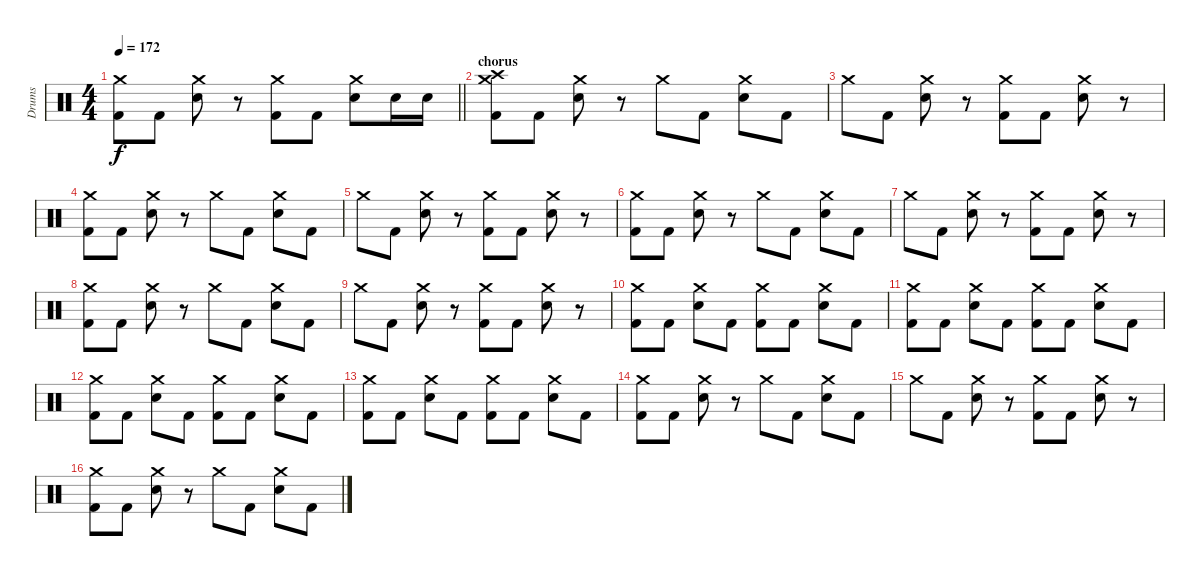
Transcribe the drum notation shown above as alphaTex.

\track ("Drums" "Drums") {instrument percussion}
\staff {score}
\articulation defaults
\ts (4 4)
\tempo 172
\clef neutral
\barLineRight lightlight
\ks c
("Crash medium (hit)" "Kick (hit) 2").8{dy f} "Kick (hit) 2".8 ("Crash medium (hit)" "Electric Snare (hit)").8 r.8 ("Crash medium (hit)" "Kick (hit) 2").8 "Kick (hit) 2".8 ("Crash medium (hit)" "Electric Snare (hit)").8 "Electric Snare (hit)".16 "Electric Snare (hit)".16 |
\section ("" "chorus")
("Crash high (hit)" "Crash medium (hit)" "Kick (hit) 2").8 "Kick (hit) 2".8 ("Crash medium (hit)" "Electric Snare (hit)").8 r.8 "Crash medium (hit)".8 "Kick (hit) 2".8 ("Crash medium (hit)" "Electric Snare (hit)").8 "Kick (hit) 2".8 |
"Crash medium (hit)".8 "Kick (hit) 2".8 ("Crash medium (hit)" "Electric Snare (hit)").8 r.8 ("Crash medium (hit)" "Kick (hit) 2").8 "Kick (hit) 2".8 ("Crash medium (hit)" "Electric Snare (hit)").8 r.8 |
("Crash medium (hit)" "Kick (hit) 2").8 "Kick (hit) 2".8 ("Crash medium (hit)" "Electric Snare (hit)").8 r.8 "Crash medium (hit)".8 "Kick (hit) 2".8 ("Crash medium (hit)" "Electric Snare (hit)").8 "Kick (hit) 2".8 |
"Crash medium (hit)".8 "Kick (hit) 2".8 ("Crash medium (hit)" "Electric Snare (hit)").8 r.8 ("Crash medium (hit)" "Kick (hit) 2").8 "Kick (hit) 2".8 ("Crash medium (hit)" "Electric Snare (hit)").8 r.8 |
("Crash medium (hit)" "Kick (hit) 2").8 "Kick (hit) 2".8 ("Crash medium (hit)" "Electric Snare (hit)").8 r.8 "Crash medium (hit)".8 "Kick (hit) 2".8 ("Crash medium (hit)" "Electric Snare (hit)").8 "Kick (hit) 2".8 |
"Crash medium (hit)".8 "Kick (hit) 2".8 ("Crash medium (hit)" "Electric Snare (hit)").8 r.8 ("Crash medium (hit)" "Kick (hit) 2").8 "Kick (hit) 2".8 ("Crash medium (hit)" "Electric Snare (hit)").8 r.8 |
("Crash medium (hit)" "Kick (hit) 2").8 "Kick (hit) 2".8 ("Crash medium (hit)" "Electric Snare (hit)").8 r.8 "Crash medium (hit)".8 "Kick (hit) 2".8 ("Crash medium (hit)" "Electric Snare (hit)").8 "Kick (hit) 2".8 |
"Crash medium (hit)".8 "Kick (hit) 2".8 ("Crash medium (hit)" "Electric Snare (hit)").8 r.8 ("Crash medium (hit)" "Kick (hit) 2").8 "Kick (hit) 2".8 ("Crash medium (hit)" "Electric Snare (hit)").8 r.8 |
("Crash medium (hit)" "Kick (hit) 2").8 "Kick (hit) 2".8 ("Crash medium (hit)" "Electric Snare (hit)").8 "Kick (hit) 2".8 ("Crash medium (hit)" "Kick (hit) 2").8 "Kick (hit) 2".8 ("Crash medium (hit)" "Electric Snare (hit)").8 "Kick (hit) 2".8 |
("Crash medium (hit)" "Kick (hit) 2").8 "Kick (hit) 2".8 ("Crash medium (hit)" "Electric Snare (hit)").8 "Kick (hit) 2".8 ("Crash medium (hit)" "Kick (hit) 2").8 "Kick (hit) 2".8 ("Crash medium (hit)" "Electric Snare (hit)").8 "Kick (hit) 2".8 |
("Crash medium (hit)" "Kick (hit) 2").8 "Kick (hit) 2".8 ("Crash medium (hit)" "Electric Snare (hit)").8 "Kick (hit) 2".8 ("Crash medium (hit)" "Kick (hit) 2").8 "Kick (hit) 2".8 ("Crash medium (hit)" "Electric Snare (hit)").8 "Kick (hit) 2".8 |
("Crash medium (hit)" "Kick (hit) 2").8 "Kick (hit) 2".8 ("Crash medium (hit)" "Electric Snare (hit)").8 "Kick (hit) 2".8 ("Crash medium (hit)" "Kick (hit) 2").8 "Kick (hit) 2".8 ("Crash medium (hit)" "Electric Snare (hit)").8 "Kick (hit) 2".8 |
("Crash medium (hit)" "Kick (hit) 2").8 "Kick (hit) 2".8 ("Crash medium (hit)" "Electric Snare (hit)").8 r.8 "Crash medium (hit)".8 "Kick (hit) 2".8 ("Crash medium (hit)" "Electric Snare (hit)").8 "Kick (hit) 2".8 |
"Crash medium (hit)".8 "Kick (hit) 2".8 ("Crash medium (hit)" "Electric Snare (hit)").8 r.8 ("Crash medium (hit)" "Kick (hit) 2").8 "Kick (hit) 2".8 ("Crash medium (hit)" "Electric Snare (hit)").8 r.8 |
("Crash medium (hit)" "Kick (hit) 2").8 "Kick (hit) 2".8 ("Crash medium (hit)" "Electric Snare (hit)").8 r.8 "Crash medium (hit)".8 "Kick (hit) 2".8 ("Crash medium (hit)" "Electric Snare (hit)").8 "Kick (hit) 2".8
